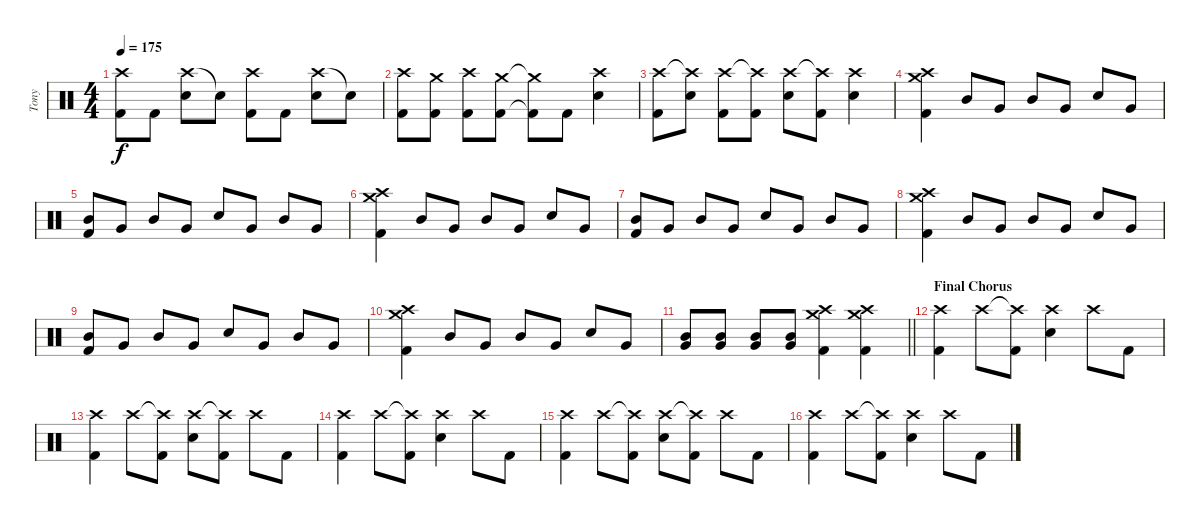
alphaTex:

\track ("Tony" "Tony") {instrument percussion}
\staff {score}
\articulation defaults
\ts (4 4)
\tempo 175
\clef neutral
\ks c
("Crash high (hit)" "Kick (hit) 2").8{dy f} "Kick (hit) 2".8 ("Crash high (hit)" "Snare (hit) 2").8 "Snare (hit) 2"{t}.8 ("Crash high (hit)" "Kick (hit) 2").8 "Kick (hit) 2".8 ("Crash high (hit)" "Snare (hit) 2").8 "Snare (hit) 2"{t}.8 |
("Crash high (hit)" "Kick (hit) 2").8 ("Crash medium (hit)" "Kick (hit) 2").8 ("Crash high (hit)" "Kick (hit) 2").8 ("Crash medium (hit)" "Kick (hit) 2").8 ("Crash medium (hit)"{t} "Kick (hit) 2"{t}).8 "Kick (hit) 2".8 ("Crash high (hit)" "Snare (hit) 2").4 |
("Crash high (hit)" "Kick (hit) 2").8 ("Crash high (hit)"{t} "Snare (hit) 2").8 ("Crash high (hit)" "Kick (hit) 2").8 ("Crash high (hit)"{t} "Kick (hit) 2").8 ("Crash high (hit)" "Snare (hit) 2").8 ("Crash high (hit)"{t} "Kick (hit) 2").8 ("Crash high (hit)" "Snare (hit) 2").4 |
("Crash high (hit)" "Crash medium (hit)" "Kick (hit) 2").4 "Mid Tom (hit)".8 "Very Low Tom (hit)".8 "Mid Tom (hit)".8 "Very Low Tom (hit)".8 "Snare (hit) 2".8 "Very Low Tom (hit)".8 |
("Mid Tom (hit)" "Kick (hit) 2").8 "Very Low Tom (hit)".8 "Mid Tom (hit)".8 "Very Low Tom (hit)".8 "Snare (hit) 2".8 "Very Low Tom (hit)".8 "Mid Tom (hit)".8 "Very Low Tom (hit)".8 |
("Crash high (hit)" "Crash medium (hit)" "Kick (hit) 2").4 "Mid Tom (hit)".8 "Very Low Tom (hit)".8 "Mid Tom (hit)".8 "Very Low Tom (hit)".8 "Snare (hit) 2".8 "Very Low Tom (hit)".8 |
("Mid Tom (hit)" "Kick (hit) 2").8 "Very Low Tom (hit)".8 "Mid Tom (hit)".8 "Very Low Tom (hit)".8 "Snare (hit) 2".8 "Very Low Tom (hit)".8 "Mid Tom (hit)".8 "Very Low Tom (hit)".8 |
("Crash high (hit)" "Crash medium (hit)" "Kick (hit) 2").4 "Mid Tom (hit)".8 "Very Low Tom (hit)".8 "Mid Tom (hit)".8 "Very Low Tom (hit)".8 "Snare (hit) 2".8 "Very Low Tom (hit)".8 |
("Mid Tom (hit)" "Kick (hit) 2").8 "Very Low Tom (hit)".8 "Mid Tom (hit)".8 "Very Low Tom (hit)".8 "Snare (hit) 2".8 "Very Low Tom (hit)".8 "Mid Tom (hit)".8 "Very Low Tom (hit)".8 |
("Crash high (hit)" "Crash medium (hit)" "Kick (hit) 2").4 "Mid Tom (hit)".8 "Very Low Tom (hit)".8 "Mid Tom (hit)".8 "Very Low Tom (hit)".8 "Snare (hit) 2".8 "Very Low Tom (hit)".8 |
\barLineRight lightlight
("Mid Tom (hit)" "Very Low Tom (hit)").8 ("Mid Tom (hit)" "Very Low Tom (hit)").8 ("Mid Tom (hit)" "Very Low Tom (hit)").8 ("Mid Tom (hit)" "Very Low Tom (hit)").8 ("Crash high (hit)" "Crash medium (hit)" "Kick (hit) 2").4 ("Crash high (hit)" "Crash medium (hit)" "Kick (hit) 2").4 |
\section ("" "Final Chorus")
("Crash high (hit)" "Kick (hit) 2").4 "Crash high (hit)".8 ("Crash high (hit)"{t} "Kick (hit) 2").8 ("Crash high (hit)" "Snare (hit) 2").4 "Crash high (hit)".8 "Kick (hit) 2".8 |
("Crash high (hit)" "Kick (hit) 2").4 "Crash high (hit)".8 ("Crash high (hit)"{t} "Kick (hit) 2").8 ("Crash high (hit)" "Snare (hit) 2").8 ("Crash high (hit)"{t} "Kick (hit) 2").8 "Crash high (hit)".8 "Kick (hit) 2".8 |
("Crash high (hit)" "Kick (hit) 2").4 "Crash high (hit)".8 ("Crash high (hit)"{t} "Kick (hit) 2").8 ("Crash high (hit)" "Snare (hit) 2").4 "Crash high (hit)".8 "Kick (hit) 2".8 |
("Crash high (hit)" "Kick (hit) 2").4 "Crash high (hit)".8 ("Crash high (hit)"{t} "Kick (hit) 2").8 ("Crash high (hit)" "Snare (hit) 2").8 ("Crash high (hit)"{t} "Kick (hit) 2").8 "Crash high (hit)".8 "Kick (hit) 2".8 |
("Crash high (hit)" "Kick (hit) 2").4 "Crash high (hit)".8 ("Crash high (hit)"{t} "Kick (hit) 2").8 ("Crash high (hit)" "Snare (hit) 2").4 "Crash high (hit)".8 "Kick (hit) 2".8
